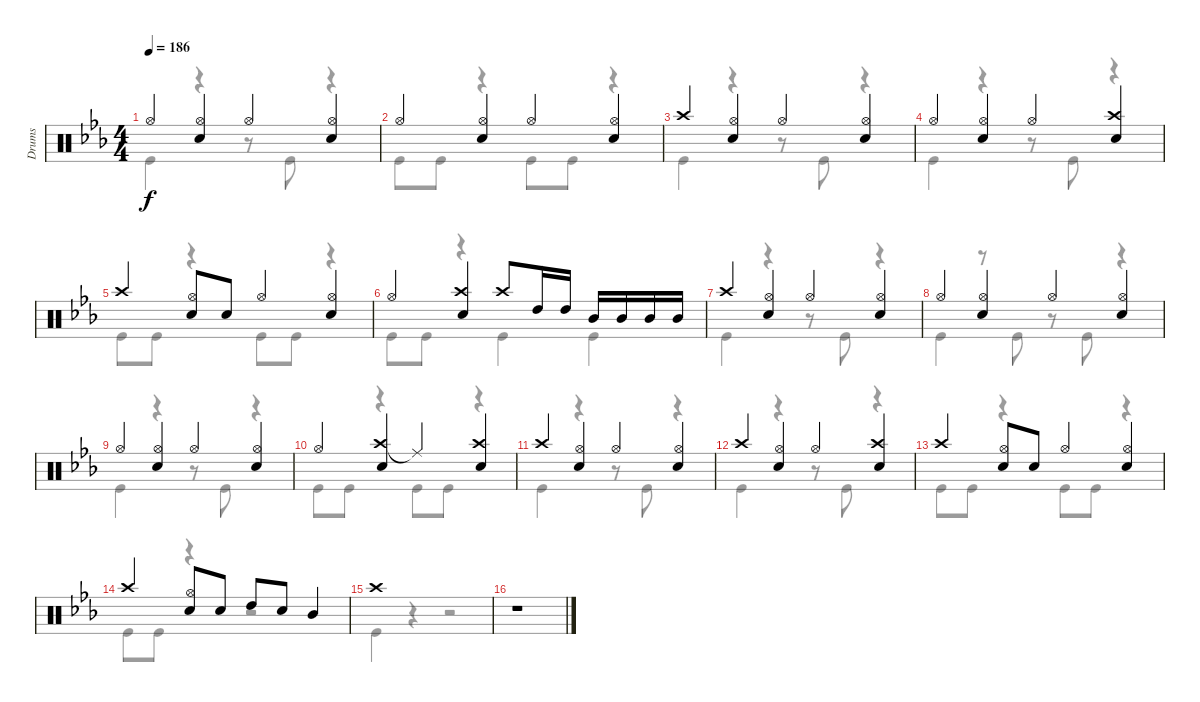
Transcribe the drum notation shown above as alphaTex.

\track ("Drums" "Drums") {instrument percussion}
\staff {score}
\articulation defaults
\voice
\ts (4 4)
\tempo 186
\clef neutral
\ks eb "Hi-Hat (open)".4{dy f beam Up}
("Snare (hit) 2" "Hi-Hat (open)").4{beam Up} "Hi-Hat (open)".4{beam Up} ("Hi-Hat (open)" "Snare (hit) 2").4{beam Up} |
"Hi-Hat (open)".4{beam Up} ("Snare (hit) 2" "Hi-Hat (open)").4{beam Up} "Hi-Hat (open)".4{beam Up} ("Hi-Hat (open)" "Snare (hit) 2").4{beam Up} |
"Crash high (hit)".4{beam Up} ("Hi-Hat (open)" "Snare (hit) 2").4{beam Up} "Hi-Hat (open)".4{beam Up} ("Hi-Hat (open)" "Snare (hit) 2").4{beam Up} |
"Hi-Hat (open)".4{beam Up} ("Snare (hit) 2" "Hi-Hat (open)").4{beam Up} "Hi-Hat (open)".4{beam Up} ("Crash high (hit)" "Snare (hit) 2").4{beam Up} |
"Crash high (hit)".4{beam Up} ("Hi-Hat (open)" "Snare (hit) 2").8{beam Up} "Snare (hit) 2".8{beam Up} "Hi-Hat (open)".4{beam Up} ("Hi-Hat (open)" "Snare (hit) 2").4{beam Up} |
"Hi-Hat (open)".4{beam Up} ("Crash high (hit)" "Snare (hit) 2").4{beam Up} "Crash high (hit)".8{beam Up} "High Tom (hit)".16{beam Up} "High Tom (hit)".16{beam Up} "Mid Tom (hit)".16{beam Up} "Mid Tom (hit)".16{beam Up} "Mid Tom (hit)".16{beam Up} "Mid Tom (hit)".16{beam Up} |
"Crash high (hit)".4{beam Up} ("Hi-Hat (open)" "Snare (hit) 2").4{beam Up} "Hi-Hat (open)".4{beam Up} ("Hi-Hat (open)" "Snare (hit) 2").4{beam Up} |
"Hi-Hat (open)".4{beam Up} ("Snare (hit) 2" "Hi-Hat (open)").4{beam Up} "Hi-Hat (open)".4{beam Up} ("Hi-Hat (open)" "Snare (hit) 2").4{beam Up} |
"Hi-Hat (open)".4{beam Up} ("Snare (hit) 2" "Hi-Hat (open)").4{beam Up} "Hi-Hat (open)".4{beam Up} ("Hi-Hat (open)" "Snare (hit) 2").4{beam Up} |
"Hi-Hat (open)".4{beam Up} ("Crash high (hit)" "Snare (hit) 2").4{beam Up} "Ride (middle)"{t}.4{beam Up} ("Crash high (hit)" "Snare (hit) 2").4{beam Up} |
"Crash high (hit)".4{beam Up} ("Hi-Hat (open)" "Snare (hit) 2").4{beam Up} "Hi-Hat (open)".4{beam Up} ("Hi-Hat (open)" "Snare (hit) 2").4{beam Up} |
"Crash high (hit)".4{beam Up} ("Hi-Hat (open)" "Snare (hit) 2").4{beam Up} "Hi-Hat (open)".4{beam Up} ("Crash high (hit)" "Snare (hit) 2").4{beam Up} |
"Crash high (hit)".4{beam Up} ("Hi-Hat (open)" "Snare (hit) 2").8{beam Up} "Snare (hit) 2".8{beam Up} "Hi-Hat (open)".4{beam Up} ("Hi-Hat (open)" "Snare (hit) 2").4{beam Up} |
"Crash high (hit)".4{beam Up} ("Hi-Hat (open)" "Snare (hit) 2").8{beam Up} "Snare (hit) 2".8{beam Up} "High Tom (hit)".8{beam Up} "Snare (hit) 2".8{beam Up} "Mid Tom (hit)".4{beam Up} |
"Crash high (hit)".1 |
r.1
\voice
\clef neutral
\ottava regular
\simile none
\ks eb "Kick (hit)".4{dy f}
r.4 r.8 "Kick (hit)".8 r.4 |
"Kick (hit)".8 "Kick (hit)".8 r.4 "Kick (hit)".8 "Kick (hit)".8 r.4 |
"Kick (hit)".4 r.4 r.8 "Kick (hit)".8 r.4 |
"Kick (hit)".4 r.4 r.8 "Kick (hit)".8 r.4 |
"Kick (hit)".8 "Kick (hit)".8 r.4 "Kick (hit)".8 "Kick (hit)".8 r.4 |
"Kick (hit)".8 "Kick (hit)".8 r.4 "Kick (hit)".4 "Kick (hit)".4 |
"Kick (hit)".4 r.4 r.8 "Kick (hit)".8 r.4 |
"Kick (hit)".4 r.8 "Kick (hit)".8 r.8 "Kick (hit)".8 r.4 |
"Kick (hit)".4 r.4 r.8 "Kick (hit)".8 r.4 |
"Kick (hit)".8 "Kick (hit)".8 r.4 "Kick (hit)".8 "Kick (hit)".8 r.4 |
"Kick (hit)".4 r.4 r.8 "Kick (hit)".8 r.4 |
"Kick (hit)".4 r.4 r.8 "Kick (hit)".8 r.4 |
"Kick (hit)".8 "Kick (hit)".8 r.4 "Kick (hit)".8 "Kick (hit)".8 r.4 |
"Kick (hit)".8 "Kick (hit)".8 r.4 r.2 |
"Kick (hit)".4 r.4 r.2 |
r.1
